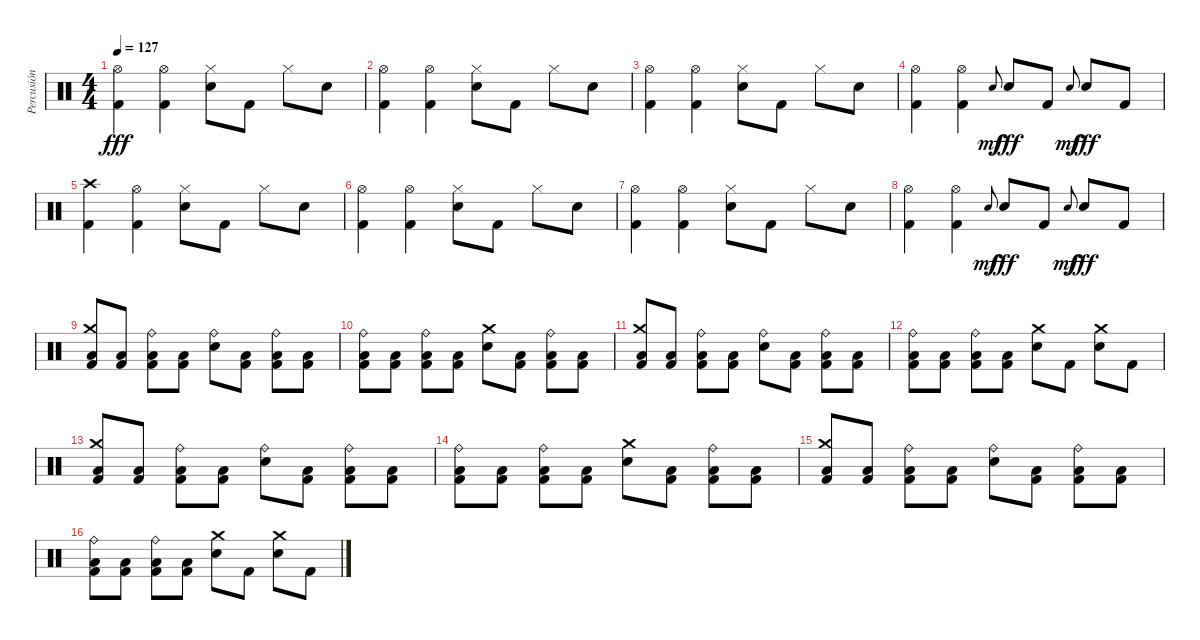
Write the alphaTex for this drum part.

\track ("Percusión" "Percusión") {instrument percussion}
\staff {score}
\articulation defaults
\ts (4 4)
\tempo 127
\clef neutral
\ks c
("Hi-Hat (open)" "Kick (hit) 2").4{dy fff} ("Hi-Hat (open)" "Kick (hit) 2").4 ("Hi-Hat (closed)" "Electric Snare (hit)").8 "Kick (hit) 2".8 "Hi-Hat (closed)".8 "Electric Snare (hit)".8 |
("Hi-Hat (open)" "Kick (hit) 2").4 ("Hi-Hat (open)" "Kick (hit) 2").4 ("Hi-Hat (closed)" "Electric Snare (hit)").8 "Kick (hit) 2".8 "Hi-Hat (closed)".8 "Electric Snare (hit)".8 |
("Hi-Hat (open)" "Kick (hit) 2").4 ("Hi-Hat (open)" "Kick (hit) 2").4 ("Hi-Hat (closed)" "Electric Snare (hit)").8 "Kick (hit) 2".8 "Hi-Hat (closed)".8 "Electric Snare (hit)".8 |
("Hi-Hat (open)" "Kick (hit) 2").4 ("Hi-Hat (open)" "Kick (hit) 2").4 "Electric Snare (hit)".8{gr onbeat dy mf} "Electric Snare (hit)".8{dy fff} "Kick (hit) 2".8 "Electric Snare (hit)".8{gr onbeat dy mf} "Electric Snare (hit)".8{dy fff} "Kick (hit) 2".8 |
("Crash high (hit)" "Kick (hit) 2").4 ("Hi-Hat (open)" "Kick (hit) 2").4 ("Hi-Hat (closed)" "Electric Snare (hit)").8 "Kick (hit) 2".8 "Hi-Hat (closed)".8 "Electric Snare (hit)".8 |
("Hi-Hat (open)" "Kick (hit) 2").4 ("Hi-Hat (open)" "Kick (hit) 2").4 ("Hi-Hat (closed)" "Electric Snare (hit)").8 "Kick (hit) 2".8 "Hi-Hat (closed)".8 "Electric Snare (hit)".8 |
("Hi-Hat (open)" "Kick (hit) 2").4 ("Hi-Hat (open)" "Kick (hit) 2").4 ("Hi-Hat (closed)" "Electric Snare (hit)").8 "Kick (hit) 2".8 "Hi-Hat (closed)".8 "Electric Snare (hit)".8 |
("Hi-Hat (open)" "Kick (hit) 2").4 ("Hi-Hat (open)" "Kick (hit) 2").4 "Electric Snare (hit)".8{gr onbeat dy mf} "Electric Snare (hit)".8{dy fff} "Kick (hit) 2".8 "Electric Snare (hit)".8{gr onbeat dy mf} "Electric Snare (hit)".8{dy fff} "Kick (hit) 2".8 |
("Crash medium (hit)" "Low Tom (hit)" "Kick (hit) 2").8 ("Low Tom (hit)" "Kick (hit) 2").8 ("Ride (bell)" "Low Tom (hit)" "Kick (hit) 2").8 ("Low Tom (hit)" "Kick (hit) 2").8 ("Ride (bell)" "Electric Snare (hit)").8 ("Low Tom (hit)" "Kick (hit) 2").8 ("Ride (bell)" "Low Tom (hit)" "Kick (hit) 2").8 ("Low Tom (hit)" "Kick (hit) 2").8 |
("Ride (bell)" "Low Tom (hit)" "Kick (hit) 2").8 ("Low Tom (hit)" "Kick (hit) 2").8 ("Ride (bell)" "Low Tom (hit)" "Kick (hit) 2").8 ("Low Tom (hit)" "Kick (hit) 2").8 ("Crash medium (hit)" "Electric Snare (hit)").8 ("Low Tom (hit)" "Kick (hit) 2").8 ("Ride (bell)" "Low Tom (hit)" "Kick (hit) 2").8 ("Low Tom (hit)" "Kick (hit) 2").8 |
("Crash medium (hit)" "Low Tom (hit)" "Kick (hit) 2").8 ("Low Tom (hit)" "Kick (hit) 2").8 ("Ride (bell)" "Low Tom (hit)" "Kick (hit) 2").8 ("Low Tom (hit)" "Kick (hit) 2").8 ("Ride (bell)" "Electric Snare (hit)").8 ("Low Tom (hit)" "Kick (hit) 2").8 ("Ride (bell)" "Low Tom (hit)" "Kick (hit) 2").8 ("Low Tom (hit)" "Kick (hit) 2").8 |
("Ride (bell)" "Low Tom (hit)" "Kick (hit) 2").8 ("Low Tom (hit)" "Kick (hit) 2").8 ("Ride (bell)" "Low Tom (hit)" "Kick (hit) 2").8 ("Low Tom (hit)" "Kick (hit) 2").8 ("Crash medium (hit)" "Electric Snare (hit)").8 "Kick (hit) 2".8 ("Crash medium (hit)" "Electric Snare (hit)").8 "Kick (hit) 2".8 |
("Crash medium (hit)" "Low Tom (hit)" "Kick (hit) 2").8 ("Low Tom (hit)" "Kick (hit) 2").8 ("Ride (bell)" "Low Tom (hit)" "Kick (hit) 2").8 ("Low Tom (hit)" "Kick (hit) 2").8 ("Ride (bell)" "Electric Snare (hit)").8 ("Low Tom (hit)" "Kick (hit) 2").8 ("Ride (bell)" "Low Tom (hit)" "Kick (hit) 2").8 ("Low Tom (hit)" "Kick (hit) 2").8 |
("Ride (bell)" "Low Tom (hit)" "Kick (hit) 2").8 ("Low Tom (hit)" "Kick (hit) 2").8 ("Ride (bell)" "Low Tom (hit)" "Kick (hit) 2").8 ("Low Tom (hit)" "Kick (hit) 2").8 ("Crash medium (hit)" "Electric Snare (hit)").8 ("Low Tom (hit)" "Kick (hit) 2").8 ("Ride (bell)" "Low Tom (hit)" "Kick (hit) 2").8 ("Low Tom (hit)" "Kick (hit) 2").8 |
("Crash medium (hit)" "Low Tom (hit)" "Kick (hit) 2").8 ("Low Tom (hit)" "Kick (hit) 2").8 ("Ride (bell)" "Low Tom (hit)" "Kick (hit) 2").8 ("Low Tom (hit)" "Kick (hit) 2").8 ("Ride (bell)" "Electric Snare (hit)").8 ("Low Tom (hit)" "Kick (hit) 2").8 ("Ride (bell)" "Low Tom (hit)" "Kick (hit) 2").8 ("Low Tom (hit)" "Kick (hit) 2").8 |
("Ride (bell)" "Low Tom (hit)" "Kick (hit) 2").8 ("Low Tom (hit)" "Kick (hit) 2").8 ("Ride (bell)" "Low Tom (hit)" "Kick (hit) 2").8 ("Low Tom (hit)" "Kick (hit) 2").8 ("Crash medium (hit)" "Electric Snare (hit)").8 "Kick (hit) 2".8 ("Crash medium (hit)" "Electric Snare (hit)").8 "Kick (hit) 2".8
